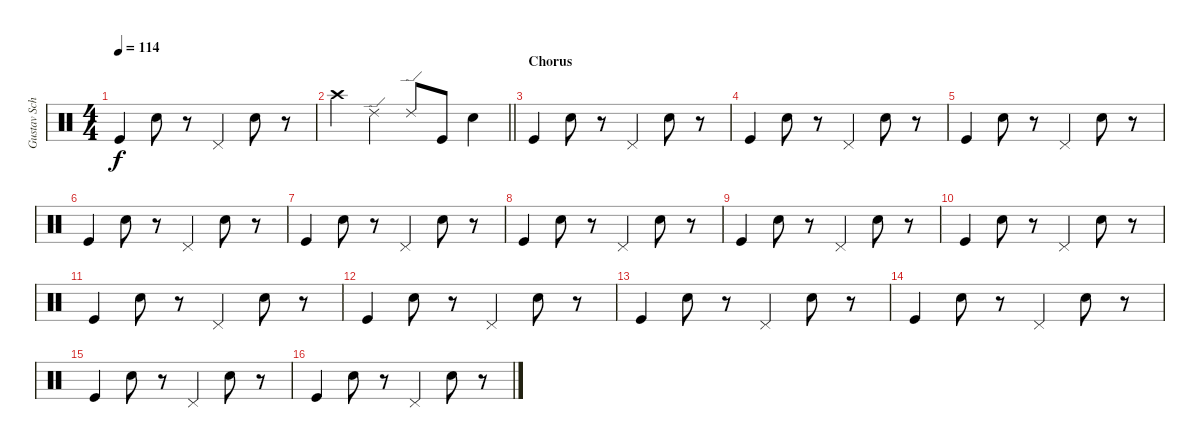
\track ("Gustav Schäfer" "Gustav Sch") {instrument percussion}
\staff {score}
\articulation defaults
\ts (4 4)
\tempo 114
\clef neutral
\ks c "Kick (hit)".4{dy f} "Electric Snare (hit)".8
r.8 "Pedal Hi-Hat (hit)".4 "Electric Snare (hit)".8 r.8 |
\barLineRight lightlight "Crash high (hit)".4 "Ride (edge) 2".4 "Ride (edge) 2".8 "Kick (hit)".8 "Electric Snare (hit)".4
|
\section ("" "Chorus")
"Kick (hit)".4 "Electric Snare (hit)".8 r.8 "Pedal Hi-Hat (hit)".4 "Electric Snare (hit)".8 r.8 |
"Kick (hit)".4 "Electric Snare (hit)".8 r.8 "Pedal Hi-Hat (hit)".4 "Electric Snare (hit)".8 r.8 |
"Kick (hit)".4 "Electric Snare (hit)".8 r.8 "Pedal Hi-Hat (hit)".4 "Electric Snare (hit)".8 r.8 |
"Kick (hit)".4 "Electric Snare (hit)".8 r.8 "Pedal Hi-Hat (hit)".4 "Electric Snare (hit)".8 r.8 |
"Kick (hit)".4 "Electric Snare (hit)".8 r.8 "Pedal Hi-Hat (hit)".4 "Electric Snare (hit)".8 r.8 |
"Kick (hit)".4 "Electric Snare (hit)".8 r.8 "Pedal Hi-Hat (hit)".4 "Electric Snare (hit)".8 r.8 |
"Kick (hit)".4 "Electric Snare (hit)".8 r.8 "Pedal Hi-Hat (hit)".4 "Electric Snare (hit)".8 r.8 |
"Kick (hit)".4 "Electric Snare (hit)".8 r.8 "Pedal Hi-Hat (hit)".4 "Electric Snare (hit)".8 r.8 |
"Kick (hit)".4 "Electric Snare (hit)".8 r.8 "Pedal Hi-Hat (hit)".4 "Electric Snare (hit)".8 r.8 |
"Kick (hit)".4 "Electric Snare (hit)".8 r.8 "Pedal Hi-Hat (hit)".4 "Electric Snare (hit)".8 r.8 |
"Kick (hit)".4 "Electric Snare (hit)".8 r.8 "Pedal Hi-Hat (hit)".4 "Electric Snare (hit)".8 r.8 |
"Kick (hit)".4 "Electric Snare (hit)".8 r.8 "Pedal Hi-Hat (hit)".4 "Electric Snare (hit)".8 r.8 |
"Kick (hit)".4 "Electric Snare (hit)".8 r.8 "Pedal Hi-Hat (hit)".4 "Electric Snare (hit)".8 r.8 |
"Kick (hit)".4 "Electric Snare (hit)".8 r.8 "Pedal Hi-Hat (hit)".4 "Electric Snare (hit)".8 r.8
